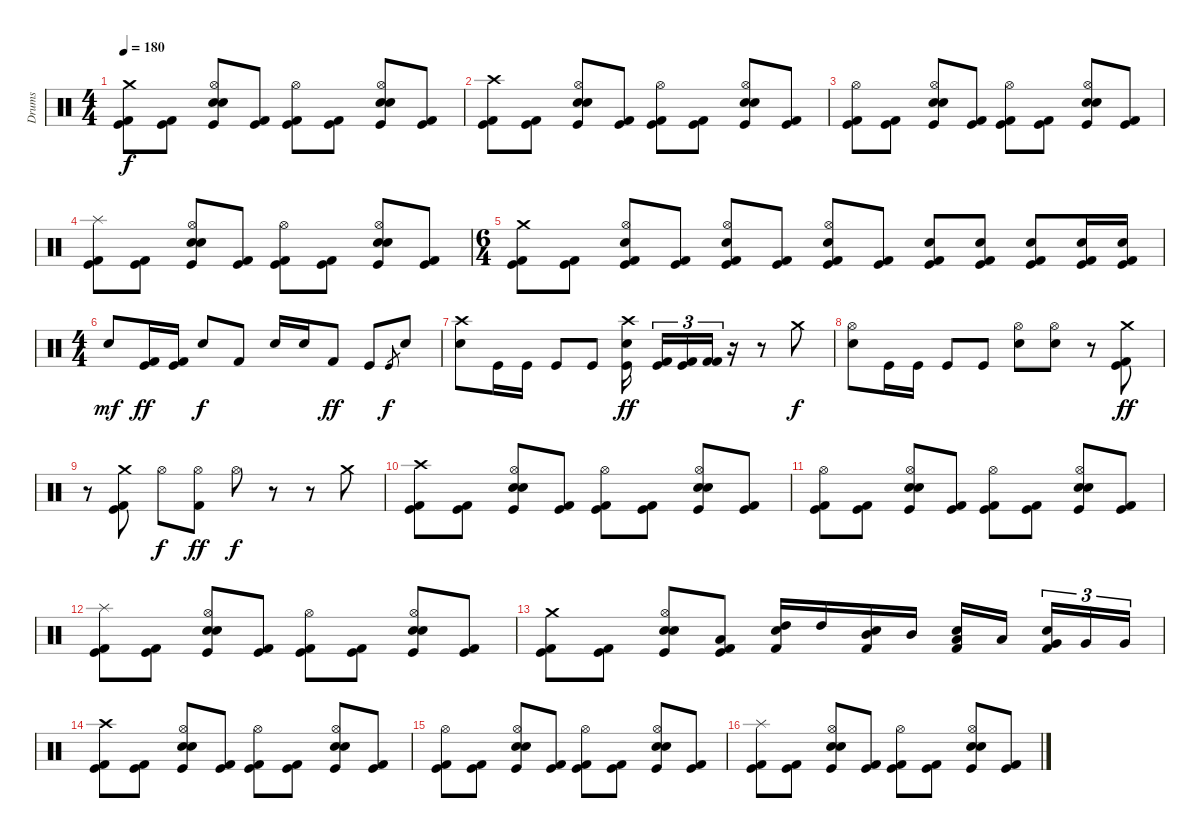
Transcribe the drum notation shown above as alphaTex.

\track ("Drums" "Drums") {instrument percussion}
\staff {score}
\articulation defaults
\ts (4 4)
\tempo 180
\clef neutral
\ks c
("Crash medium (hit)" "Kick (hit) 2" "Kick (hit)").8{dy f} ("Kick (hit) 2" "Kick (hit)").8 ("Hi-Hat (open)" "Snare (hit) 2" "Electric Snare (hit)" "Kick (hit)").8 ("Kick (hit) 2" "Kick (hit)").8 ("Hi-Hat (open)" "Kick (hit) 2" "Kick (hit)").8 ("Kick (hit) 2" "Kick (hit)").8 ("Hi-Hat (open)" "Snare (hit) 2" "Electric Snare (hit)" "Kick (hit)").8 ("Kick (hit) 2" "Kick (hit)").8 |
("Crash high (hit)" "Kick (hit) 2" "Kick (hit)").8 ("Kick (hit) 2" "Kick (hit)").8 ("Hi-Hat (open)" "Snare (hit) 2" "Electric Snare (hit)" "Kick (hit)").8 ("Kick (hit) 2" "Kick (hit)").8 ("Hi-Hat (open)" "Kick (hit) 2" "Kick (hit)").8 ("Kick (hit) 2" "Kick (hit)").8 ("Hi-Hat (open)" "Snare (hit) 2" "Electric Snare (hit)" "Kick (hit)").8 ("Kick (hit) 2" "Kick (hit)").8 |
("Hi-Hat (open)" "Kick (hit) 2" "Kick (hit)").8 ("Kick (hit) 2" "Kick (hit)").8 ("Hi-Hat (open)" "Snare (hit) 2" "Electric Snare (hit)" "Kick (hit)").8 ("Kick (hit) 2" "Kick (hit)").8 ("Hi-Hat (open)" "Kick (hit) 2" "Kick (hit)").8 ("Kick (hit) 2" "Kick (hit)").8 ("Hi-Hat (open)" "Snare (hit) 2" "Electric Snare (hit)" "Kick (hit)").8 ("Kick (hit) 2" "Kick (hit)").8 |
("Splash (hit)" "Kick (hit) 2" "Kick (hit)").8 ("Kick (hit) 2" "Kick (hit)").8 ("Hi-Hat (open)" "Snare (hit) 2" "Electric Snare (hit)" "Kick (hit)").8 ("Kick (hit) 2" "Kick (hit)").8 ("Hi-Hat (open)" "Kick (hit) 2" "Kick (hit)").8 ("Kick (hit) 2" "Kick (hit)").8 ("Hi-Hat (open)" "Snare (hit) 2" "Electric Snare (hit)" "Kick (hit)").8 ("Kick (hit) 2" "Kick (hit)").8 |
\ts (6 4)
("Crash medium (hit)" "Kick (hit) 2" "Kick (hit)").8 ("Kick (hit) 2" "Kick (hit)").8 ("Hi-Hat (open)" "Kick (hit) 2" "Electric Snare (hit)" "Kick (hit)").8 ("Kick (hit) 2" "Kick (hit)").8 ("Hi-Hat (open)" "Kick (hit) 2" "Electric Snare (hit)" "Kick (hit)").8 ("Kick (hit) 2" "Kick (hit)").8 ("Hi-Hat (open)" "Kick (hit) 2" "Electric Snare (hit)" "Kick (hit)").8 ("Kick (hit) 2" "Kick (hit)").8 ("Kick (hit) 2" "Snare (hit) 2" "Kick (hit)").8 ("Kick (hit) 2" "Snare (hit) 2" "Kick (hit)").8 ("Kick (hit) 2" "Snare (hit) 2" "Kick (hit)").8 ("Kick (hit) 2" "Snare (hit) 2" "Kick (hit)").16 ("Kick (hit) 2" "Snare (hit) 2" "Kick (hit)").16 |
\ts (4 4)
"Snare (hit) 2".8{dy mf} ("Kick (hit)" "Kick (hit) 2").16{dy ff} ("Kick (hit)" "Kick (hit) 2").16 "Snare (hit) 2".8{dy f} "Kick (hit) 2".8 "Snare (hit) 2".16 "Snare (hit) 2".16 "Kick (hit) 2".8{dy ff} "Kick (hit)".8 "Kick (hit)".8{gr dy f} "Electric Snare (hit)".8 |
("Crash high (hit)" "Snare (hit) 2").8 "Kick (hit)".16 "Kick (hit)".16 "Kick (hit)".8 "Kick (hit)".8 ("Crash high (hit)" "Snare (hit) 2" "Kick (hit)").16{dy ff} ("Kick (hit) 2" "Kick (hit)").16{tu (3 2)} ("Kick (hit) 2" "Kick (hit)").16{tu (3 2)} ("Kick (hit) 2" "Kick (hit) 2").16{tu (3 2)} r.16 r.8 "Crash medium (hit)".8{dy f} |
("Hi-Hat (open)" "Snare (hit) 2").8 "Kick (hit)".16 "Kick (hit)".16 "Kick (hit)".8 "Kick (hit)".8 ("Hi-Hat (open)" "Snare (hit) 2").8 ("Hi-Hat (open)" "Snare (hit) 2").8 r.8 ("Crash medium (hit)" "Kick (hit) 2" "Kick (hit)").8{dy ff} |
r.8 ("Crash medium (hit)" "Kick (hit) 2" "Kick (hit)").8 "Hi-Hat (open)".8{dy f} ("Hi-Hat (open)" "Kick (hit) 2").8{dy ff} "Hi-Hat (open)".8{dy f} r.8 r.8 "Crash medium (hit)".8 |
("Crash high (hit)" "Kick (hit) 2" "Kick (hit)").8 ("Kick (hit) 2" "Kick (hit)").8 ("Hi-Hat (open)" "Snare (hit) 2" "Electric Snare (hit)" "Kick (hit)").8 ("Kick (hit) 2" "Kick (hit)").8 ("Hi-Hat (open)" "Kick (hit) 2" "Kick (hit)").8 ("Kick (hit) 2" "Kick (hit)").8 ("Hi-Hat (open)" "Snare (hit) 2" "Electric Snare (hit)" "Kick (hit)").8 ("Kick (hit) 2" "Kick (hit)").8 |
("Hi-Hat (open)" "Kick (hit) 2" "Kick (hit)").8 ("Kick (hit) 2" "Kick (hit)").8 ("Hi-Hat (open)" "Snare (hit) 2" "Electric Snare (hit)" "Kick (hit)").8 ("Kick (hit) 2" "Kick (hit)").8 ("Hi-Hat (open)" "Kick (hit) 2" "Kick (hit)").8 ("Kick (hit) 2" "Kick (hit)").8 ("Hi-Hat (open)" "Snare (hit) 2" "Electric Snare (hit)" "Kick (hit)").8 ("Kick (hit) 2" "Kick (hit)").8 |
("Splash (hit)" "Kick (hit) 2" "Kick (hit)").8 ("Kick (hit) 2" "Kick (hit)").8 ("Hi-Hat (open)" "Snare (hit) 2" "Electric Snare (hit)" "Kick (hit)").8 ("Kick (hit) 2" "Kick (hit)").8 ("Hi-Hat (open)" "Kick (hit) 2" "Kick (hit)").8 ("Kick (hit) 2" "Kick (hit)").8 ("Hi-Hat (open)" "Snare (hit) 2" "Electric Snare (hit)" "Kick (hit)").8 ("Kick (hit) 2" "Kick (hit)").8 |
("Crash medium (hit)" "Kick (hit) 2" "Kick (hit)").8 ("Kick (hit) 2" "Kick (hit)").8 ("Hi-Hat (open)" "Snare (hit) 2" "Electric Snare (hit)" "Kick (hit)").8 ("Kick (hit) 2" "Low Tom (hit)" "Kick (hit)").8 ("Snare (hit) 2" "High Tom (hit)" "Kick (hit) 2").16 "High Tom (hit)".16 ("Snare (hit) 2" "Mid Tom (hit)" "Kick (hit) 2").16 "Mid Tom (hit)".16 ("Snare (hit) 2" "Low Tom (hit)" "Kick (hit) 2").16 "Low Tom (hit)".16 ("Snare (hit) 2" "Very Low Tom (hit)" "Kick (hit) 2").16{tu (3 2)} "Very Low Tom (hit)".16{tu (3 2)} "Very Low Tom (hit)".16{tu (3 2)} |
("Crash high (hit)" "Kick (hit) 2" "Kick (hit)").8 ("Kick (hit) 2" "Kick (hit)").8 ("Hi-Hat (open)" "Snare (hit) 2" "Electric Snare (hit)" "Kick (hit)").8 ("Kick (hit) 2" "Kick (hit)").8 ("Hi-Hat (open)" "Kick (hit) 2" "Kick (hit)").8 ("Kick (hit) 2" "Kick (hit)").8 ("Hi-Hat (open)" "Snare (hit) 2" "Electric Snare (hit)" "Kick (hit)").8 ("Kick (hit) 2" "Kick (hit)").8 |
("Hi-Hat (open)" "Kick (hit) 2" "Kick (hit)").8 ("Kick (hit) 2" "Kick (hit)").8 ("Hi-Hat (open)" "Snare (hit) 2" "Electric Snare (hit)" "Kick (hit)").8 ("Kick (hit) 2" "Kick (hit)").8 ("Hi-Hat (open)" "Kick (hit) 2" "Kick (hit)").8 ("Kick (hit) 2" "Kick (hit)").8 ("Hi-Hat (open)" "Snare (hit) 2" "Electric Snare (hit)" "Kick (hit)").8 ("Kick (hit) 2" "Kick (hit)").8 |
("Splash (hit)" "Kick (hit) 2" "Kick (hit)").8 ("Kick (hit) 2" "Kick (hit)").8 ("Hi-Hat (open)" "Snare (hit) 2" "Electric Snare (hit)" "Kick (hit)").8 ("Kick (hit) 2" "Kick (hit)").8 ("Hi-Hat (open)" "Kick (hit) 2" "Kick (hit)").8 ("Kick (hit) 2" "Kick (hit)").8 ("Hi-Hat (open)" "Snare (hit) 2" "Electric Snare (hit)" "Kick (hit)").8 ("Kick (hit) 2" "Kick (hit)").8
